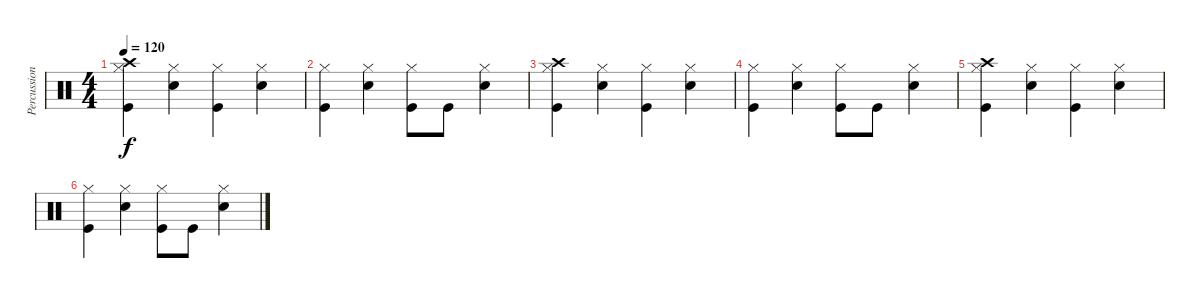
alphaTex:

\track ("Percussion" "Percussion") {instrument percussion}
\staff {score}
\articulation defaults
\ts (4 4)
\tempo 120
\clef neutral
\ks c
("Kick (hit)" "Hi-Hat (closed)" "Crash high (hit)").4{dy f} ("Snare (hit) 2" "Hi-Hat (closed)").4 ("Kick (hit)" "Hi-Hat (closed)").4 ("Snare (hit) 2" "Hi-Hat (closed)").4 |
("Kick (hit)" "Hi-Hat (closed)").4 ("Snare (hit) 2" "Hi-Hat (closed)").4 ("Kick (hit)" "Hi-Hat (closed)").8 "Kick (hit)".8 ("Hi-Hat (closed)" "Snare (hit) 2").4 |
("Kick (hit)" "Hi-Hat (closed)" "Crash high (hit)").4 ("Snare (hit) 2" "Hi-Hat (closed)").4 ("Kick (hit)" "Hi-Hat (closed)").4 ("Snare (hit) 2" "Hi-Hat (closed)").4 |
("Kick (hit)" "Hi-Hat (closed)").4 ("Snare (hit) 2" "Hi-Hat (closed)").4 ("Kick (hit)" "Hi-Hat (closed)").8 "Kick (hit)".8 ("Hi-Hat (closed)" "Snare (hit) 2").4 |
("Kick (hit)" "Hi-Hat (closed)" "Crash high (hit)").4 ("Snare (hit) 2" "Hi-Hat (closed)").4 ("Kick (hit)" "Hi-Hat (closed)").4 ("Snare (hit) 2" "Hi-Hat (closed)").4 |
("Kick (hit)" "Hi-Hat (closed)").4 ("Snare (hit) 2" "Hi-Hat (closed)").4 ("Kick (hit)" "Hi-Hat (closed)").8 "Kick (hit)".8 ("Hi-Hat (closed)" "Snare (hit) 2").4
